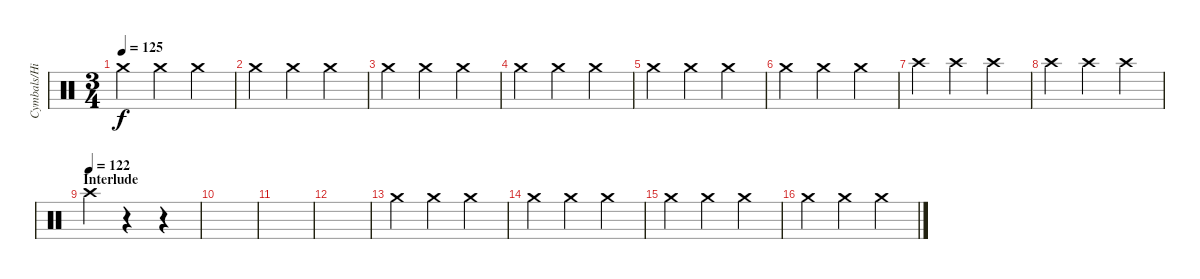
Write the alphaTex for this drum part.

\track ("Cymbals/Hi-hat" "Cymbals/Hi") {instrument percussion}
\staff {score}
\articulation defaults
\ts (3 4)
\tempo 125
\clef neutral
\ks c "Crash medium (hit)".4{dy f} "Crash medium (hit)".4 "Crash medium (hit)".4
|
"Crash medium (hit)".4 "Crash medium (hit)".4 "Crash medium (hit)".4 |
"Crash medium (hit)".4 "Crash medium (hit)".4 "Crash medium (hit)".4 |
"Crash medium (hit)".4 "Crash medium (hit)".4 "Crash medium (hit)".4 |
"Crash medium (hit)".4 "Crash medium (hit)".4 "Crash medium (hit)".4 |
"Crash medium (hit)".4 "Crash medium (hit)".4 "Crash medium (hit)".4 |
"Crash high (hit)".4 "Crash high (hit)".4 "Crash high (hit)".4 |
"Crash high (hit)".4 "Crash high (hit)".4 "Crash high (hit)".4 |
\section ("" "Interlude")
\tempo (122)
"Crash high (hit)".4 r.4 r.4 |
|
|
|
"Crash medium (hit)".4 "Crash medium (hit)".4 "Crash medium (hit)".4 |
"Crash medium (hit)".4 "Crash medium (hit)".4 "Crash medium (hit)".4 |
"Crash medium (hit)".4 "Crash medium (hit)".4 "Crash medium (hit)".4 |
"Crash medium (hit)".4 "Crash medium (hit)".4 "Crash medium (hit)".4
